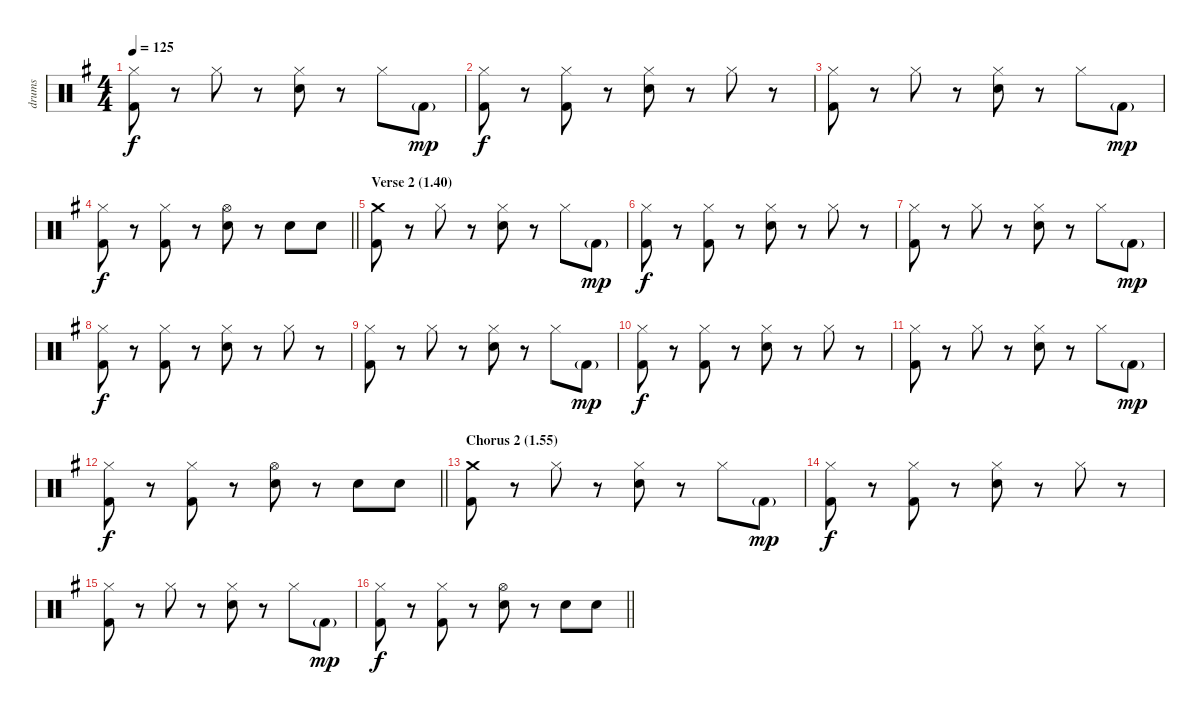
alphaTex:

\track ("drums" "drums") {instrument percussion}
\staff {score}
\articulation defaults
\ts (4 4)
\tempo 125
\clef neutral
\ks g
("Hi-Hat (closed)" "Kick (hit) 2").8{dy f} r.8 "Hi-Hat (closed)".8 r.8 ("Hi-Hat (closed)" "Electric Snare (hit)").8 r.8 "Hi-Hat (closed)".8 "Kick (hit) 2"{g}.8{dy mp} |
("Hi-Hat (closed)" "Kick (hit) 2").8{dy f} r.8 ("Hi-Hat (closed)" "Kick (hit) 2").8 r.8 ("Hi-Hat (closed)" "Electric Snare (hit)").8 r.8 "Hi-Hat (closed)".8 r.8 |
("Hi-Hat (closed)" "Kick (hit) 2").8 r.8 "Hi-Hat (closed)".8 r.8 ("Hi-Hat (closed)" "Electric Snare (hit)").8 r.8 "Hi-Hat (closed)".8 "Kick (hit) 2"{g}.8{dy mp} |
\barLineRight lightlight
("Hi-Hat (closed)" "Kick (hit) 2").8{dy f} r.8 ("Hi-Hat (closed)" "Kick (hit) 2").8 r.8 ("Hi-Hat (open)" "Electric Snare (hit)").8 r.8 "Electric Snare (hit)".8 "Electric Snare (hit)".8 |
\section ("" "Verse 2 (1.40)")
("Crash medium (hit)" "Kick (hit) 2").8 r.8 "Hi-Hat (closed)".8 r.8 ("Hi-Hat (closed)" "Electric Snare (hit)").8 r.8 "Hi-Hat (closed)".8 "Kick (hit) 2"{g}.8{dy mp} |
("Hi-Hat (closed)" "Kick (hit) 2").8{dy f} r.8 ("Hi-Hat (closed)" "Kick (hit) 2").8 r.8 ("Hi-Hat (closed)" "Electric Snare (hit)").8 r.8 "Hi-Hat (closed)".8 r.8 |
("Hi-Hat (closed)" "Kick (hit) 2").8 r.8 "Hi-Hat (closed)".8 r.8 ("Hi-Hat (closed)" "Electric Snare (hit)").8 r.8 "Hi-Hat (closed)".8 "Kick (hit) 2"{g}.8{dy mp} |
("Hi-Hat (closed)" "Kick (hit) 2").8{dy f} r.8 ("Hi-Hat (closed)" "Kick (hit) 2").8 r.8 ("Hi-Hat (closed)" "Electric Snare (hit)").8 r.8 "Hi-Hat (closed)".8 r.8 |
("Hi-Hat (closed)" "Kick (hit) 2").8 r.8 "Hi-Hat (closed)".8 r.8 ("Hi-Hat (closed)" "Electric Snare (hit)").8 r.8 "Hi-Hat (closed)".8 "Kick (hit) 2"{g}.8{dy mp} |
("Hi-Hat (closed)" "Kick (hit) 2").8{dy f} r.8 ("Hi-Hat (closed)" "Kick (hit) 2").8 r.8 ("Hi-Hat (closed)" "Electric Snare (hit)").8 r.8 "Hi-Hat (closed)".8 r.8 |
("Hi-Hat (closed)" "Kick (hit) 2").8 r.8 "Hi-Hat (closed)".8 r.8 ("Hi-Hat (closed)" "Electric Snare (hit)").8 r.8 "Hi-Hat (closed)".8 "Kick (hit) 2"{g}.8{dy mp} |
\barLineRight lightlight
("Hi-Hat (closed)" "Kick (hit) 2").8{dy f} r.8 ("Hi-Hat (closed)" "Kick (hit) 2").8 r.8 ("Hi-Hat (open)" "Electric Snare (hit)").8 r.8 "Electric Snare (hit)".8 "Electric Snare (hit)".8 |
\section ("" "Chorus 2 (1.55)")
("Crash medium (hit)" "Kick (hit) 2").8 r.8 "Hi-Hat (closed)".8 r.8 ("Hi-Hat (closed)" "Electric Snare (hit)").8 r.8 "Hi-Hat (closed)".8 "Kick (hit) 2"{g}.8{dy mp} |
("Hi-Hat (closed)" "Kick (hit) 2").8{dy f} r.8 ("Hi-Hat (closed)" "Kick (hit) 2").8 r.8 ("Hi-Hat (closed)" "Electric Snare (hit)").8 r.8 "Hi-Hat (closed)".8 r.8 |
("Hi-Hat (closed)" "Kick (hit) 2").8 r.8 "Hi-Hat (closed)".8 r.8 ("Hi-Hat (closed)" "Electric Snare (hit)").8 r.8 "Hi-Hat (closed)".8 "Kick (hit) 2"{g}.8{dy mp} |
\barLineRight lightlight
("Hi-Hat (closed)" "Kick (hit) 2").8{dy f} r.8 ("Hi-Hat (closed)" "Kick (hit) 2").8 r.8 ("Hi-Hat (open)" "Electric Snare (hit)").8 r.8 "Electric Snare (hit)".8 "Electric Snare (hit)".8
